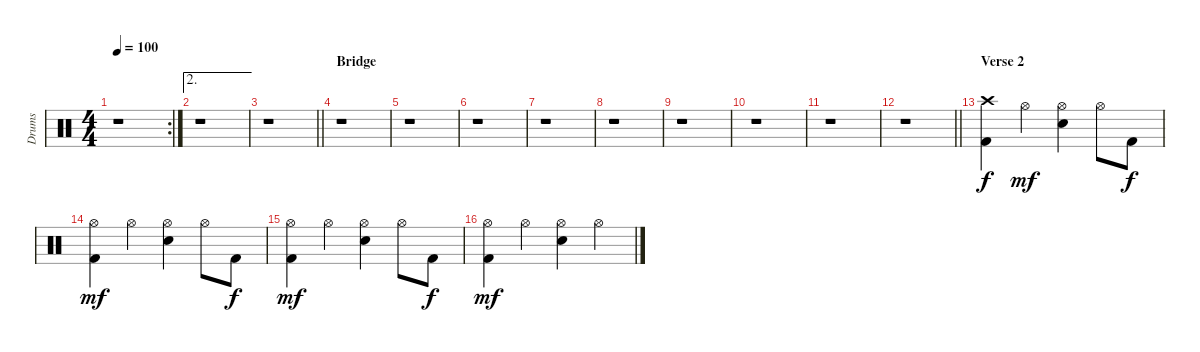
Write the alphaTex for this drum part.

\track ("Drums" "Drums") {instrument percussion}
\staff {score}
\articulation defaults
\rc 2
\ts (4 4)
\tempo 100
\clef neutral
\ks c
r.1{dy f} |
\ae 2
r.1 |
\barLineRight lightlight
r.1 |
\section ("" "Bridge")
r.1 |
r.1 |
r.1 |
r.1 |
r.1 |
r.1 |
r.1 |
r.1 |
\barLineRight lightlight
r.1 |
\section ("" "Verse 2")
("Crash high (hit)" "Kick (hit) 2").4 "Hi-Hat (open)".4{dy mf} ("Hi-Hat (open)" "Electric Snare (hit)").4 "Hi-Hat (open)".8 "Kick (hit) 2".8{dy f} |
("Hi-Hat (open)" "Kick (hit) 2").4{dy mf} "Hi-Hat (open)".4 ("Hi-Hat (open)" "Electric Snare (hit)").4 "Hi-Hat (open)".8 "Kick (hit) 2".8{dy f} |
("Hi-Hat (open)" "Kick (hit) 2").4{dy mf} "Hi-Hat (open)".4 ("Hi-Hat (open)" "Electric Snare (hit)").4 "Hi-Hat (open)".8 "Kick (hit) 2".8{dy f} |
("Hi-Hat (open)" "Kick (hit) 2").4{dy mf} "Hi-Hat (open)".4 ("Hi-Hat (open)" "Electric Snare (hit)").4 "Hi-Hat (open)".4
